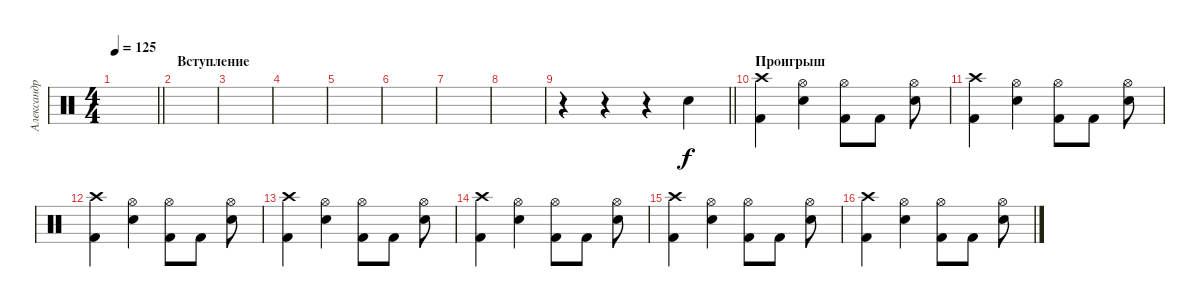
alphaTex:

\track ("Александр Манякин" "Александр ") {instrument percussion}
\staff {score}
\articulation defaults
\ts (4 4)
\tempo 125
\clef neutral
\barLineRight lightlight
\ks c
|
\section ("" "Вступление")
|
|
|
|
|
|
|
\barLineRight lightlight
r.4 r.4 r.4 "Snare (hit) 2".4 |
\section ("" "Проигрыш")
("Crash high (hit)" "Kick (hit) 2").4 ("Hi-Hat (open)" "Snare (hit) 2").4 ("Hi-Hat (open)" "Kick (hit) 2").8 "Kick (hit) 2".8 ("Hi-Hat (open)" "Snare (hit) 2").8 |
("Crash high (hit)" "Kick (hit) 2").4 ("Hi-Hat (open)" "Snare (hit) 2").4 ("Hi-Hat (open)" "Kick (hit) 2").8 "Kick (hit) 2".8 ("Hi-Hat (open)" "Snare (hit) 2").8 |
("Crash high (hit)" "Kick (hit) 2").4 ("Hi-Hat (open)" "Snare (hit) 2").4 ("Hi-Hat (open)" "Kick (hit) 2").8 "Kick (hit) 2".8 ("Hi-Hat (open)" "Snare (hit) 2").8 |
("Crash high (hit)" "Kick (hit) 2").4 ("Hi-Hat (open)" "Snare (hit) 2").4 ("Hi-Hat (open)" "Kick (hit) 2").8 "Kick (hit) 2".8 ("Hi-Hat (open)" "Snare (hit) 2").8 |
("Crash high (hit)" "Kick (hit) 2").4 ("Hi-Hat (open)" "Snare (hit) 2").4 ("Hi-Hat (open)" "Kick (hit) 2").8 "Kick (hit) 2".8 ("Hi-Hat (open)" "Snare (hit) 2").8 |
("Crash high (hit)" "Kick (hit) 2").4 ("Hi-Hat (open)" "Snare (hit) 2").4 ("Hi-Hat (open)" "Kick (hit) 2").8 "Kick (hit) 2".8 ("Hi-Hat (open)" "Snare (hit) 2").8 |
("Crash high (hit)" "Kick (hit) 2").4 ("Hi-Hat (open)" "Snare (hit) 2").4 ("Hi-Hat (open)" "Kick (hit) 2").8 "Kick (hit) 2".8 ("Hi-Hat (open)" "Snare (hit) 2").8
